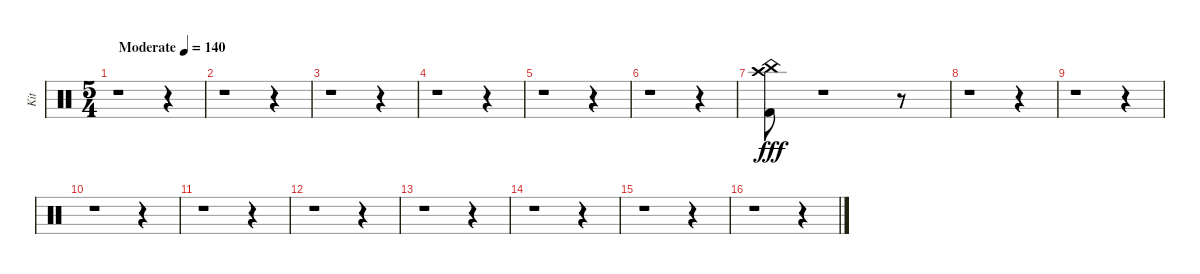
\track ("Kit" "Kit") {instrument percussion}
\staff {score}
\articulation defaults
\ts (5 4)
\tempo (140 "Moderate")
\clef neutral
\ks c
r.1{dy fff} r.4 |
r.1 r.4 |
r.1 r.4 |
r.1 r.4 |
r.1 r.4 |
r.1 r.4 |
("Kick (hit) 2" "Crash high (hit)" "China (hit)").8 r.1 r.8 |
r.1 r.4 |
r.1 r.4 |
r.1 r.4 |
r.1 r.4 |
r.1 r.4 |
r.1 r.4 |
r.1 r.4 |
r.1 r.4 |
r.1 r.4
